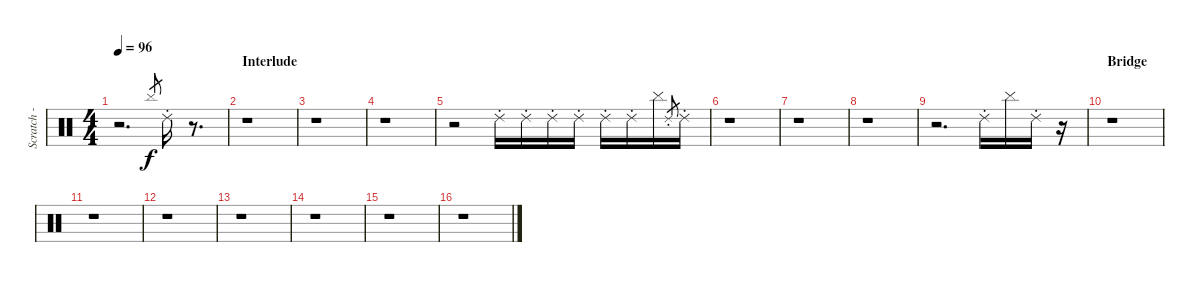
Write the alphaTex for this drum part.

\track ("Scratch - ???" "Scratch - ") {instrument percussion}
\staff {score}
\articulation defaults
\ts (4 4)
\tempo 96
\clef neutral
\ks c
r.2{d dy f} "Cymbal (hit)".8{gr} "Ride (choke) 2".16 r.8{d} |
\section ("" "Interlude")
r.1 |
r.1 |
r.1 |
r.2 "Ride (choke) 2".16 "Ride (choke) 2".16 "Ride (choke) 2".16 "Ride (choke) 2".16 "Ride (choke) 2".16 "Ride (choke) 2".16 "Cymbal (hit)".16 "Ride (choke) 2".8{gr} "Ride (choke) 2".16 |
r.1 |
r.1 |
r.1 |
r.2{d} "Ride (choke) 2".16 "Cymbal (hit)".16 "Ride (choke) 2".16 r.16 |
\section ("" "Bridge")
r.1 |
r.1 |
r.1 |
r.1 |
r.1 |
r.1 |
r.1
